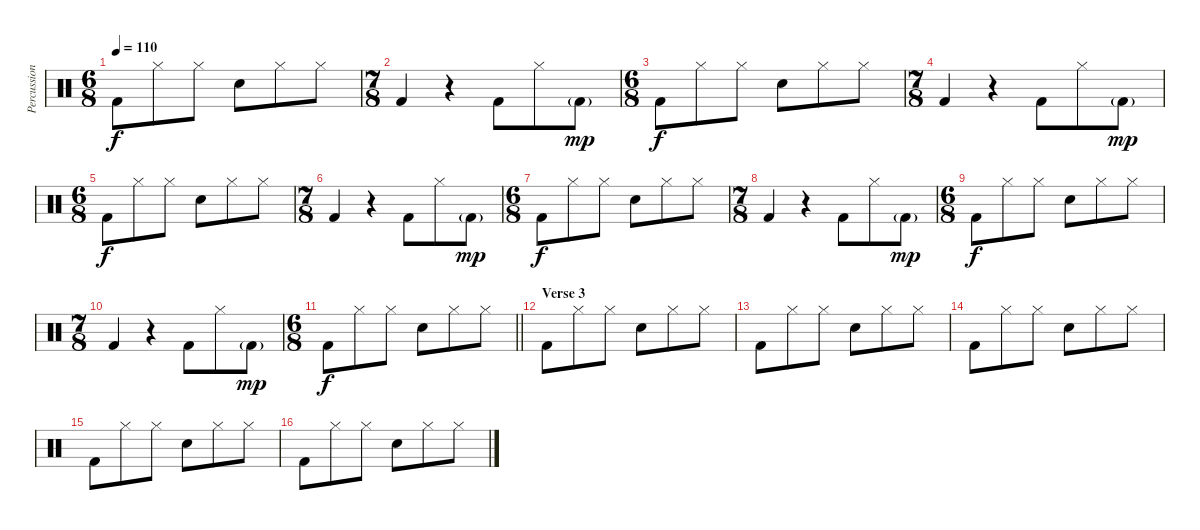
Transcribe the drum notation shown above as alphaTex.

\track ("Percussion" "Percussion") {instrument percussion}
\staff {score}
\articulation defaults
\ts (6 8)
\tempo 110
\clef neutral
\ks c "Kick (hit) 2".8{dy f} "Hi-Hat (closed)".8 "Hi-Hat (closed)".8 "Snare (hit) 2".8 "Hi-Hat (closed)".8 "Hi-Hat (closed)".8
|
\ts (7 8)
"Kick (hit) 2".4 r.4 "Kick (hit) 2".8 "Hi-Hat (closed)".8 "Kick (hit) 2"{g}.8{dy mp} |
\ts (6 8)
"Kick (hit) 2".8{dy f} "Hi-Hat (closed)".8 "Hi-Hat (closed)".8 "Snare (hit) 2".8 "Hi-Hat (closed)".8 "Hi-Hat (closed)".8 |
\ts (7 8)
"Kick (hit) 2".4 r.4 "Kick (hit) 2".8 "Hi-Hat (closed)".8 "Kick (hit) 2"{g}.8{dy mp} |
\ts (6 8)
"Kick (hit) 2".8{dy f} "Hi-Hat (closed)".8 "Hi-Hat (closed)".8 "Snare (hit) 2".8 "Hi-Hat (closed)".8 "Hi-Hat (closed)".8 |
\ts (7 8)
"Kick (hit) 2".4 r.4 "Kick (hit) 2".8 "Hi-Hat (closed)".8 "Kick (hit) 2"{g}.8{dy mp} |
\ts (6 8)
"Kick (hit) 2".8{dy f} "Hi-Hat (closed)".8 "Hi-Hat (closed)".8 "Snare (hit) 2".8 "Hi-Hat (closed)".8 "Hi-Hat (closed)".8 |
\ts (7 8)
"Kick (hit) 2".4 r.4 "Kick (hit) 2".8 "Hi-Hat (closed)".8 "Kick (hit) 2"{g}.8{dy mp} |
\ts (6 8)
"Kick (hit) 2".8{dy f} "Hi-Hat (closed)".8 "Hi-Hat (closed)".8 "Snare (hit) 2".8 "Hi-Hat (closed)".8 "Hi-Hat (closed)".8 |
\ts (7 8)
"Kick (hit) 2".4 r.4 "Kick (hit) 2".8 "Hi-Hat (closed)".8 "Kick (hit) 2"{g}.8{dy mp} |
\ts (6 8)
\barLineRight lightlight "Kick (hit) 2".8{dy f} "Hi-Hat (closed)".8 "Hi-Hat (closed)".8 "Snare (hit) 2".8 "Hi-Hat (closed)".8 "Hi-Hat (closed)".8
|
\section ("" "Verse 3")
"Kick (hit) 2".8 "Hi-Hat (closed)".8 "Hi-Hat (closed)".8 "Snare (hit) 2".8 "Hi-Hat (closed)".8 "Hi-Hat (closed)".8 |
"Kick (hit) 2".8 "Hi-Hat (closed)".8 "Hi-Hat (closed)".8 "Snare (hit) 2".8 "Hi-Hat (closed)".8 "Hi-Hat (closed)".8 |
"Kick (hit) 2".8 "Hi-Hat (closed)".8 "Hi-Hat (closed)".8 "Snare (hit) 2".8 "Hi-Hat (closed)".8 "Hi-Hat (closed)".8 |
"Kick (hit) 2".8 "Hi-Hat (closed)".8 "Hi-Hat (closed)".8 "Snare (hit) 2".8 "Hi-Hat (closed)".8 "Hi-Hat (closed)".8 |
"Kick (hit) 2".8 "Hi-Hat (closed)".8 "Hi-Hat (closed)".8 "Snare (hit) 2".8 "Hi-Hat (closed)".8 "Hi-Hat (closed)".8
